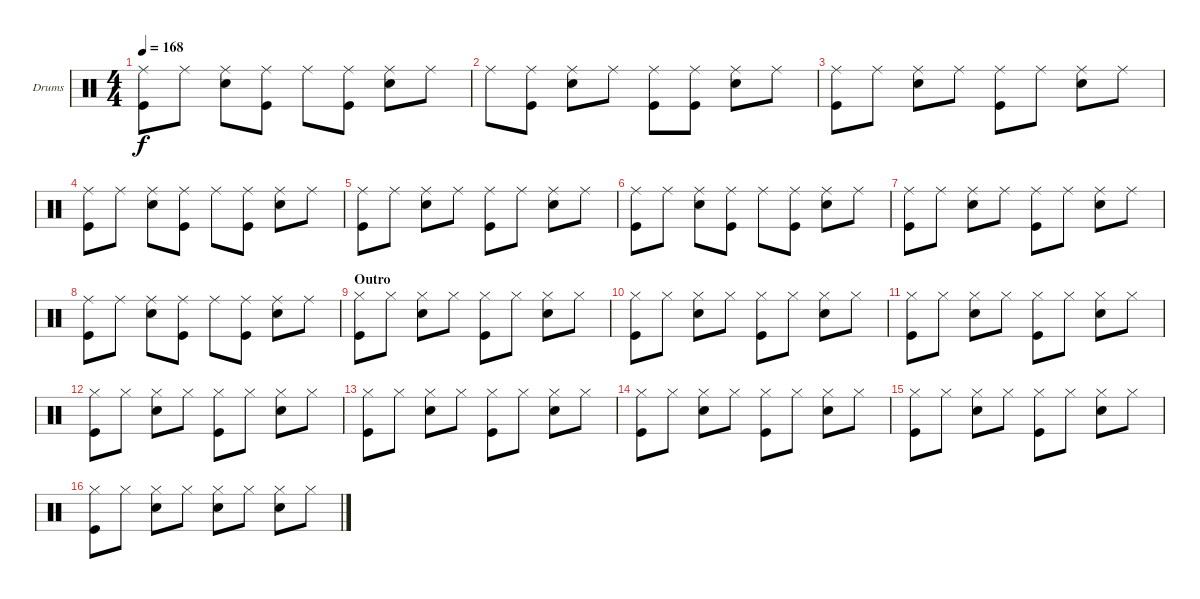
\bracketExtendMode groupsimilarinstruments
\firstSystemTrackNameOrientation horizontal
\otherSystemsTrackNameOrientation horizontal
\track ("Drumkit" "Drums") {instrument percussion}
\staff {score}
\articulation defaults
\ts (4 4)
\tempo 168
\clef neutral
\ks c
("Kick (hit)" "Ride (middle)").8{dy f} "Ride (middle)".8 ("Snare (hit) 2" "Ride (middle)").8 ("Kick (hit)" "Ride (middle)").8 "Ride (middle)".8 ("Kick (hit)" "Ride (middle)").8 ("Snare (hit) 2" "Ride (middle)").8 "Ride (middle)".8 |
"Ride (middle)".8 ("Ride (middle)" "Kick (hit)").8 ("Snare (hit) 2" "Ride (middle)").8 "Ride (middle)".8 ("Ride (middle)" "Kick (hit)").8 ("Kick (hit)" "Ride (middle)").8 ("Snare (hit) 2" "Ride (middle)").8 "Ride (middle)".8 |
("Kick (hit)" "Ride (middle)").8 "Ride (middle)".8 ("Snare (hit) 2" "Ride (middle)").8 "Ride (middle)".8 ("Ride (middle)" "Kick (hit)").8 "Ride (middle)".8 ("Snare (hit) 2" "Ride (middle)").8 "Ride (middle)".8 |
("Kick (hit)" "Ride (middle)").8 "Ride (middle)".8 ("Snare (hit) 2" "Ride (middle)").8 ("Kick (hit)" "Ride (middle)").8 "Ride (middle)".8 ("Kick (hit)" "Ride (middle)").8 ("Snare (hit) 2" "Ride (middle)").8 "Ride (middle)".8 |
("Kick (hit)" "Ride (middle)").8 "Ride (middle)".8 ("Snare (hit) 2" "Ride (middle)").8 "Ride (middle)".8 ("Ride (middle)" "Kick (hit)").8 "Ride (middle)".8 ("Snare (hit) 2" "Ride (middle)").8 "Ride (middle)".8 |
("Kick (hit)" "Ride (middle)").8 "Ride (middle)".8 ("Snare (hit) 2" "Ride (middle)").8 ("Kick (hit)" "Ride (middle)").8 "Ride (middle)".8 ("Kick (hit)" "Ride (middle)").8 ("Snare (hit) 2" "Ride (middle)").8 "Ride (middle)".8 |
("Kick (hit)" "Ride (middle)").8 "Ride (middle)".8 ("Snare (hit) 2" "Ride (middle)").8 "Ride (middle)".8 ("Ride (middle)" "Kick (hit)").8 "Ride (middle)".8 ("Snare (hit) 2" "Ride (middle)").8 "Ride (middle)".8 |
("Kick (hit)" "Ride (middle)").8 "Ride (middle)".8 ("Snare (hit) 2" "Ride (middle)").8 ("Kick (hit)" "Ride (middle)").8 "Ride (middle)".8 ("Kick (hit)" "Ride (middle)").8 ("Snare (hit) 2" "Ride (middle)").8 "Ride (middle)".8 |
\section ("" "Outro")
("Kick (hit)" "Hi-Hat (closed)").8 "Hi-Hat (closed)".8 ("Snare (hit) 2" "Hi-Hat (closed)").8 "Hi-Hat (closed)".8 ("Kick (hit)" "Hi-Hat (closed)").8 "Hi-Hat (closed)".8 ("Snare (hit) 2" "Hi-Hat (closed)").8 "Hi-Hat (closed)".8 |
("Kick (hit)" "Hi-Hat (closed)").8 "Hi-Hat (closed)".8 ("Snare (hit) 2" "Hi-Hat (closed)").8 "Hi-Hat (closed)".8 ("Kick (hit)" "Hi-Hat (closed)").8 "Hi-Hat (closed)".8 ("Snare (hit) 2" "Hi-Hat (closed)").8 "Hi-Hat (closed)".8 |
("Kick (hit)" "Hi-Hat (closed)").8 "Hi-Hat (closed)".8 ("Snare (hit) 2" "Hi-Hat (closed)").8 "Hi-Hat (closed)".8 ("Kick (hit)" "Hi-Hat (closed)").8 "Hi-Hat (closed)".8 ("Snare (hit) 2" "Hi-Hat (closed)").8 "Hi-Hat (closed)".8 |
("Kick (hit)" "Hi-Hat (closed)").8 "Hi-Hat (closed)".8 ("Snare (hit) 2" "Hi-Hat (closed)").8 "Hi-Hat (closed)".8 ("Kick (hit)" "Hi-Hat (closed)").8 "Hi-Hat (closed)".8 ("Snare (hit) 2" "Hi-Hat (closed)").8 "Hi-Hat (closed)".8 |
("Kick (hit)" "Hi-Hat (closed)").8 "Hi-Hat (closed)".8 ("Snare (hit) 2" "Hi-Hat (closed)").8 "Hi-Hat (closed)".8 ("Kick (hit)" "Hi-Hat (closed)").8 "Hi-Hat (closed)".8 ("Snare (hit) 2" "Hi-Hat (closed)").8 "Hi-Hat (closed)".8 |
("Kick (hit)" "Hi-Hat (closed)").8 "Hi-Hat (closed)".8 ("Snare (hit) 2" "Hi-Hat (closed)").8 "Hi-Hat (closed)".8 ("Kick (hit)" "Hi-Hat (closed)").8 "Hi-Hat (closed)".8 ("Snare (hit) 2" "Hi-Hat (closed)").8 "Hi-Hat (closed)".8 |
("Kick (hit)" "Hi-Hat (closed)").8 "Hi-Hat (closed)".8 ("Snare (hit) 2" "Hi-Hat (closed)").8 "Hi-Hat (closed)".8 ("Kick (hit)" "Hi-Hat (closed)").8 "Hi-Hat (closed)".8 ("Snare (hit) 2" "Hi-Hat (closed)").8 "Hi-Hat (closed)".8 |
("Kick (hit)" "Hi-Hat (closed)").8 "Hi-Hat (closed)".8 ("Snare (hit) 2" "Hi-Hat (closed)").8 "Hi-Hat (closed)".8 ("Snare (hit) 2" "Hi-Hat (closed)").8 "Hi-Hat (closed)".8 ("Snare (hit) 2" "Hi-Hat (closed)").8 "Hi-Hat (closed)".8
